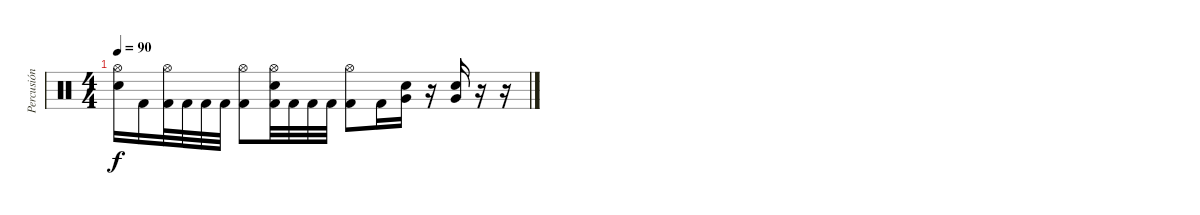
\track ("Percusión" "Percusión") {instrument percussion}
\staff {score}
\articulation defaults
\ts (4 4)
\tempo 90
\clef neutral
\ks c
("Hi-Hat (open)" "Electric Snare (hit)").16{dy f} "Kick (hit) 2".16 ("Hi-Hat (open)" "Kick (hit) 2").32 "Kick (hit) 2".32 "Kick (hit) 2".32 "Kick (hit) 2".32 ("Hi-Hat (open)" "Kick (hit) 2").8 ("Hi-Hat (open)" "Electric Snare (hit)" "Kick (hit) 2").32 "Kick (hit) 2".32 "Kick (hit) 2".32 "Kick (hit) 2".32 ("Hi-Hat (open)" "Kick (hit) 2").8 "Kick (hit) 2".16 ("Electric Snare (hit)" "Very Low Tom (hit)").16 r.16 ("Electric Snare (hit)" "Very Low Tom (hit)").16 r.16 r.16
